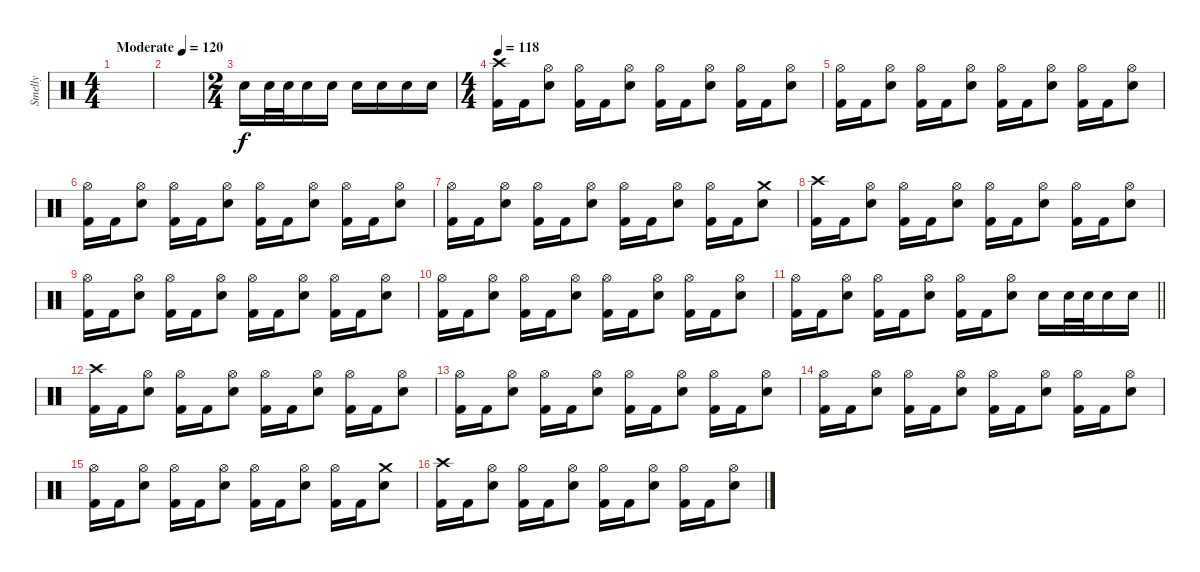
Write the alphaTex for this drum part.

\track ("Smelly" "Smelly") {instrument percussion}
\staff {score}
\articulation defaults
\ts (4 4)
\tempo (120 "Moderate")
\clef neutral
\ks c
|
|
\ts (2 4)
"Electric Snare (hit)".16 "Electric Snare (hit)".32 "Electric Snare (hit)".32 "Electric Snare (hit)".16 "Electric Snare (hit)".16 "Electric Snare (hit)".16 "Electric Snare (hit)".16 "Electric Snare (hit)".16 "Electric Snare (hit)".16 |
\ts (4 4)
\tempo 118
("Crash high (hit)" "Kick (hit) 2").16 "Kick (hit) 2".16 ("Hi-Hat (open)" "Electric Snare (hit)").8 ("Hi-Hat (open)" "Kick (hit) 2").16 "Kick (hit) 2".16 ("Hi-Hat (open)" "Electric Snare (hit)").8 ("Hi-Hat (open)" "Kick (hit) 2").16 "Kick (hit) 2".16 ("Hi-Hat (open)" "Electric Snare (hit)").8 ("Hi-Hat (open)" "Kick (hit) 2").16 "Kick (hit) 2".16 ("Hi-Hat (open)" "Electric Snare (hit)").8 |
("Hi-Hat (open)" "Kick (hit) 2").16 "Kick (hit) 2".16 ("Hi-Hat (open)" "Electric Snare (hit)").8 ("Hi-Hat (open)" "Kick (hit) 2").16 "Kick (hit) 2".16 ("Hi-Hat (open)" "Electric Snare (hit)").8 ("Hi-Hat (open)" "Kick (hit) 2").16 "Kick (hit) 2".16 ("Hi-Hat (open)" "Electric Snare (hit)").8 ("Hi-Hat (open)" "Kick (hit) 2").16 "Kick (hit) 2".16 ("Hi-Hat (open)" "Electric Snare (hit)").8 |
("Hi-Hat (open)" "Kick (hit) 2").16 "Kick (hit) 2".16 ("Hi-Hat (open)" "Electric Snare (hit)").8 ("Hi-Hat (open)" "Kick (hit) 2").16 "Kick (hit) 2".16 ("Hi-Hat (open)" "Electric Snare (hit)").8 ("Hi-Hat (open)" "Kick (hit) 2").16 "Kick (hit) 2".16 ("Hi-Hat (open)" "Electric Snare (hit)").8 ("Hi-Hat (open)" "Kick (hit) 2").16 "Kick (hit) 2".16 ("Hi-Hat (open)" "Electric Snare (hit)").8 |
("Hi-Hat (open)" "Kick (hit) 2").16 "Kick (hit) 2".16 ("Hi-Hat (open)" "Electric Snare (hit)").8 ("Hi-Hat (open)" "Kick (hit) 2").16 "Kick (hit) 2".16 ("Hi-Hat (open)" "Electric Snare (hit)").8 ("Hi-Hat (open)" "Kick (hit) 2").16 "Kick (hit) 2".16 ("Hi-Hat (open)" "Electric Snare (hit)").8 ("Hi-Hat (open)" "Kick (hit) 2").16 "Kick (hit) 2".16 ("Crash medium (hit)" "Electric Snare (hit)").8 |
("Crash high (hit)" "Kick (hit) 2").16 "Kick (hit) 2".16 ("Hi-Hat (open)" "Electric Snare (hit)").8 ("Hi-Hat (open)" "Kick (hit) 2").16 "Kick (hit) 2".16 ("Hi-Hat (open)" "Electric Snare (hit)").8 ("Hi-Hat (open)" "Kick (hit) 2").16 "Kick (hit) 2".16 ("Hi-Hat (open)" "Electric Snare (hit)").8 ("Hi-Hat (open)" "Kick (hit) 2").16 "Kick (hit) 2".16 ("Hi-Hat (open)" "Electric Snare (hit)").8 |
("Hi-Hat (open)" "Kick (hit) 2").16 "Kick (hit) 2".16 ("Hi-Hat (open)" "Electric Snare (hit)").8 ("Hi-Hat (open)" "Kick (hit) 2").16 "Kick (hit) 2".16 ("Hi-Hat (open)" "Electric Snare (hit)").8 ("Hi-Hat (open)" "Kick (hit) 2").16 "Kick (hit) 2".16 ("Hi-Hat (open)" "Electric Snare (hit)").8 ("Hi-Hat (open)" "Kick (hit) 2").16 "Kick (hit) 2".16 ("Hi-Hat (open)" "Electric Snare (hit)").8 |
("Hi-Hat (open)" "Kick (hit) 2").16 "Kick (hit) 2".16 ("Hi-Hat (open)" "Electric Snare (hit)").8 ("Hi-Hat (open)" "Kick (hit) 2").16 "Kick (hit) 2".16 ("Hi-Hat (open)" "Electric Snare (hit)").8 ("Hi-Hat (open)" "Kick (hit) 2").16 "Kick (hit) 2".16 ("Hi-Hat (open)" "Electric Snare (hit)").8 ("Hi-Hat (open)" "Kick (hit) 2").16 "Kick (hit) 2".16 ("Hi-Hat (open)" "Electric Snare (hit)").8 |
\barLineRight lightlight
("Hi-Hat (open)" "Kick (hit) 2").16 "Kick (hit) 2".16 ("Hi-Hat (open)" "Electric Snare (hit)").8 ("Hi-Hat (open)" "Kick (hit) 2").16 "Kick (hit) 2".16 ("Hi-Hat (open)" "Electric Snare (hit)").8 ("Hi-Hat (open)" "Kick (hit) 2").16 "Kick (hit) 2".16 ("Hi-Hat (open)" "Electric Snare (hit)").8 "Electric Snare (hit)".16 "Electric Snare (hit)".32 "Electric Snare (hit)".32 "Electric Snare (hit)".16 "Electric Snare (hit)".16 |
\section ("" "")
("Crash high (hit)" "Kick (hit) 2").16 "Kick (hit) 2".16 ("Hi-Hat (open)" "Electric Snare (hit)").8 ("Hi-Hat (open)" "Kick (hit) 2").16 "Kick (hit) 2".16 ("Hi-Hat (open)" "Electric Snare (hit)").8 ("Hi-Hat (open)" "Kick (hit) 2").16 "Kick (hit) 2".16 ("Hi-Hat (open)" "Electric Snare (hit)").8 ("Hi-Hat (open)" "Kick (hit) 2").16 "Kick (hit) 2".16 ("Hi-Hat (open)" "Electric Snare (hit)").8 |
("Hi-Hat (open)" "Kick (hit) 2").16 "Kick (hit) 2".16 ("Hi-Hat (open)" "Electric Snare (hit)").8 ("Hi-Hat (open)" "Kick (hit) 2").16 "Kick (hit) 2".16 ("Hi-Hat (open)" "Electric Snare (hit)").8 ("Hi-Hat (open)" "Kick (hit) 2").16 "Kick (hit) 2".16 ("Hi-Hat (open)" "Electric Snare (hit)").8 ("Hi-Hat (open)" "Kick (hit) 2").16 "Kick (hit) 2".16 ("Hi-Hat (open)" "Electric Snare (hit)").8 |
("Hi-Hat (open)" "Kick (hit) 2").16 "Kick (hit) 2".16 ("Hi-Hat (open)" "Electric Snare (hit)").8 ("Hi-Hat (open)" "Kick (hit) 2").16 "Kick (hit) 2".16 ("Hi-Hat (open)" "Electric Snare (hit)").8 ("Hi-Hat (open)" "Kick (hit) 2").16 "Kick (hit) 2".16 ("Hi-Hat (open)" "Electric Snare (hit)").8 ("Hi-Hat (open)" "Kick (hit) 2").16 "Kick (hit) 2".16 ("Hi-Hat (open)" "Electric Snare (hit)").8 |
("Hi-Hat (open)" "Kick (hit) 2").16 "Kick (hit) 2".16 ("Hi-Hat (open)" "Electric Snare (hit)").8 ("Hi-Hat (open)" "Kick (hit) 2").16 "Kick (hit) 2".16 ("Hi-Hat (open)" "Electric Snare (hit)").8 ("Hi-Hat (open)" "Kick (hit) 2").16 "Kick (hit) 2".16 ("Hi-Hat (open)" "Electric Snare (hit)").8 ("Hi-Hat (open)" "Kick (hit) 2").16 "Kick (hit) 2".16 ("Crash medium (hit)" "Electric Snare (hit)").8 |
("Crash high (hit)" "Kick (hit) 2").16 "Kick (hit) 2".16 ("Hi-Hat (open)" "Electric Snare (hit)").8 ("Hi-Hat (open)" "Kick (hit) 2").16 "Kick (hit) 2".16 ("Hi-Hat (open)" "Electric Snare (hit)").8 ("Hi-Hat (open)" "Kick (hit) 2").16 "Kick (hit) 2".16 ("Hi-Hat (open)" "Electric Snare (hit)").8 ("Hi-Hat (open)" "Kick (hit) 2").16 "Kick (hit) 2".16 ("Hi-Hat (open)" "Electric Snare (hit)").8
